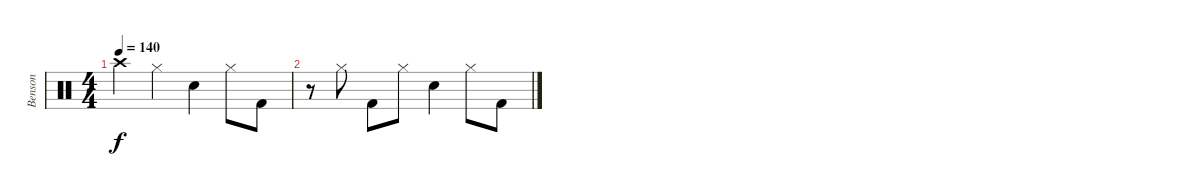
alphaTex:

\track ("Benson" "Benson") {instrument percussion}
\staff {score}
\articulation defaults
\ts (4 4)
\tempo 140
\clef neutral
\ks c "Crash high (hit)".4{dy f} "Hi-Hat (closed)".4 "Electric Snare (hit)".4 "Hi-Hat (closed)".8 "Kick (hit) 2".8
|
r.8 "Hi-Hat (closed)".8 "Kick (hit) 2".8 "Hi-Hat (closed)".8 "Electric Snare (hit)".4 "Hi-Hat (closed)".8 "Kick (hit) 2".8
